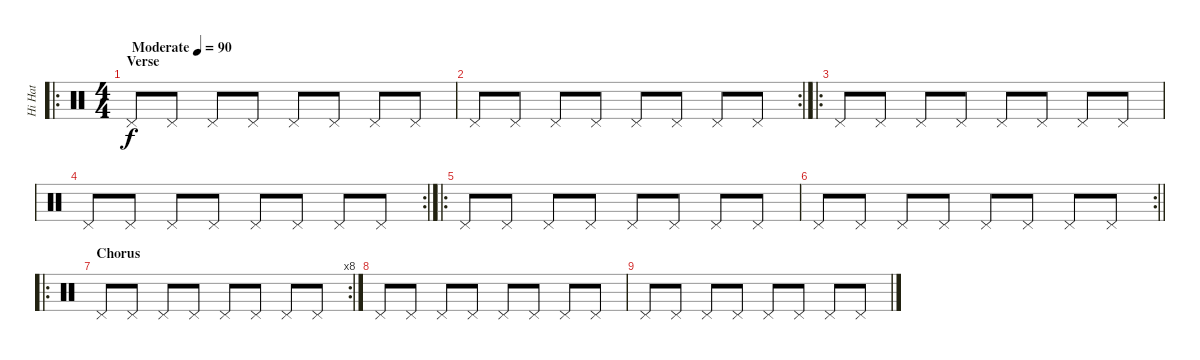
\track ("Hi Hat" "Hi Hat") {instrument percussion}
\staff {score}
\articulation defaults
\ro
\ts (4 4)
\section ("" "Verse")
\tempo (90 "Moderate")
\clef neutral
\ks c "Pedal Hi-Hat (hit)".8{dy f} "Pedal Hi-Hat (hit)".8 "Pedal Hi-Hat (hit)".8 "Pedal Hi-Hat (hit)".8 "Pedal Hi-Hat (hit)".8 "Pedal Hi-Hat (hit)".8 "Pedal Hi-Hat (hit)".8 "Pedal Hi-Hat (hit)".8
|
\rc 2 "Pedal Hi-Hat (hit)".8 "Pedal Hi-Hat (hit)".8 "Pedal Hi-Hat (hit)".8 "Pedal Hi-Hat (hit)".8 "Pedal Hi-Hat (hit)".8 "Pedal Hi-Hat (hit)".8 "Pedal Hi-Hat (hit)".8 "Pedal Hi-Hat (hit)".8
|
\ro "Pedal Hi-Hat (hit)".8 "Pedal Hi-Hat (hit)".8 "Pedal Hi-Hat (hit)".8 "Pedal Hi-Hat (hit)".8 "Pedal Hi-Hat (hit)".8 "Pedal Hi-Hat (hit)".8 "Pedal Hi-Hat (hit)".8 "Pedal Hi-Hat (hit)".8
|
\rc 2 "Pedal Hi-Hat (hit)".8 "Pedal Hi-Hat (hit)".8 "Pedal Hi-Hat (hit)".8 "Pedal Hi-Hat (hit)".8 "Pedal Hi-Hat (hit)".8 "Pedal Hi-Hat (hit)".8 "Pedal Hi-Hat (hit)".8 "Pedal Hi-Hat (hit)".8
|
\ro "Pedal Hi-Hat (hit)".8 "Pedal Hi-Hat (hit)".8 "Pedal Hi-Hat (hit)".8 "Pedal Hi-Hat (hit)".8 "Pedal Hi-Hat (hit)".8 "Pedal Hi-Hat (hit)".8 "Pedal Hi-Hat (hit)".8 "Pedal Hi-Hat (hit)".8
|
\rc 2
\barLineRight lightlight "Pedal Hi-Hat (hit)".8 "Pedal Hi-Hat (hit)".8 "Pedal Hi-Hat (hit)".8 "Pedal Hi-Hat (hit)".8 "Pedal Hi-Hat (hit)".8 "Pedal Hi-Hat (hit)".8 "Pedal Hi-Hat (hit)".8 "Pedal Hi-Hat (hit)".8
|
\ro
\rc 8
\section ("" "Chorus")
"Pedal Hi-Hat (hit)".8 "Pedal Hi-Hat (hit)".8 "Pedal Hi-Hat (hit)".8 "Pedal Hi-Hat (hit)".8 "Pedal Hi-Hat (hit)".8 "Pedal Hi-Hat (hit)".8 "Pedal Hi-Hat (hit)".8 "Pedal Hi-Hat (hit)".8 |
"Pedal Hi-Hat (hit)".8 "Pedal Hi-Hat (hit)".8 "Pedal Hi-Hat (hit)".8 "Pedal Hi-Hat (hit)".8 "Pedal Hi-Hat (hit)".8 "Pedal Hi-Hat (hit)".8 "Pedal Hi-Hat (hit)".8 "Pedal Hi-Hat (hit)".8 |
"Pedal Hi-Hat (hit)".8 "Pedal Hi-Hat (hit)".8 "Pedal Hi-Hat (hit)".8 "Pedal Hi-Hat (hit)".8 "Pedal Hi-Hat (hit)".8 "Pedal Hi-Hat (hit)".8 "Pedal Hi-Hat (hit)".8 "Pedal Hi-Hat (hit)".8
